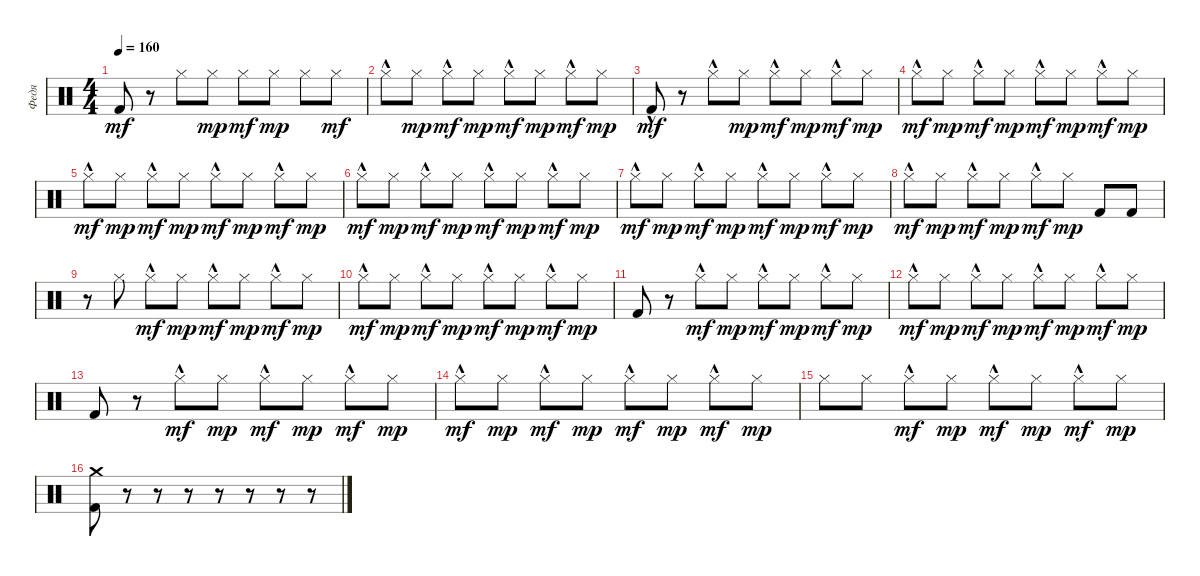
\track ("Федя" "Федя") {instrument percussion}
\staff {score}
\articulation defaults
\ts (4 4)
\tempo 160
\clef neutral
\ks c "Kick (hit) 2".8{dy mf}
r.8 "Hi-Hat (closed)".8 "Hi-Hat (closed)".8{dy mp} "Hi-Hat (closed)".8{dy mf} "Hi-Hat (closed)".8{dy mp} "Hi-Hat (closed)".8 "Hi-Hat (closed)".8{dy mf} |
"Hi-Hat (closed)"{hac}.8 "Hi-Hat (closed)".8{dy mp} "Hi-Hat (closed)"{hac}.8{dy mf} "Hi-Hat (closed)".8{dy mp} "Hi-Hat (closed)"{hac}.8{dy mf} "Hi-Hat (closed)".8{dy mp} "Hi-Hat (closed)"{hac}.8{dy mf} "Hi-Hat (closed)".8{dy mp} |
"Kick (hit) 2"{hac}.8{dy mf} r.8 "Hi-Hat (closed)"{hac}.8 "Hi-Hat (closed)".8{dy mp} "Hi-Hat (closed)"{hac}.8{dy mf} "Hi-Hat (closed)".8{dy mp} "Hi-Hat (closed)"{hac}.8{dy mf} "Hi-Hat (closed)".8{dy mp} |
"Hi-Hat (closed)"{hac}.8{dy mf} "Hi-Hat (closed)".8{dy mp} "Hi-Hat (closed)"{hac}.8{dy mf} "Hi-Hat (closed)".8{dy mp} "Hi-Hat (closed)"{hac}.8{dy mf} "Hi-Hat (closed)".8{dy mp} "Hi-Hat (closed)"{hac}.8{dy mf} "Hi-Hat (closed)".8{dy mp} |
"Hi-Hat (closed)"{hac}.8{dy mf} "Hi-Hat (closed)".8{dy mp} "Hi-Hat (closed)"{hac}.8{dy mf} "Hi-Hat (closed)".8{dy mp} "Hi-Hat (closed)"{hac}.8{dy mf} "Hi-Hat (closed)".8{dy mp} "Hi-Hat (closed)"{hac}.8{dy mf} "Hi-Hat (closed)".8{dy mp} |
"Hi-Hat (closed)"{hac}.8{dy mf} "Hi-Hat (closed)".8{dy mp} "Hi-Hat (closed)"{hac}.8{dy mf} "Hi-Hat (closed)".8{dy mp} "Hi-Hat (closed)"{hac}.8{dy mf} "Hi-Hat (closed)".8{dy mp} "Hi-Hat (closed)"{hac}.8{dy mf} "Hi-Hat (closed)".8{dy mp} |
"Hi-Hat (closed)"{hac}.8{dy mf} "Hi-Hat (closed)".8{dy mp} "Hi-Hat (closed)"{hac}.8{dy mf} "Hi-Hat (closed)".8{dy mp} "Hi-Hat (closed)"{hac}.8{dy mf} "Hi-Hat (closed)".8{dy mp} "Hi-Hat (closed)"{hac}.8{dy mf} "Hi-Hat (closed)".8{dy mp} |
"Hi-Hat (closed)"{hac}.8{dy mf} "Hi-Hat (closed)".8{dy mp} "Hi-Hat (closed)"{hac}.8{dy mf} "Hi-Hat (closed)".8{dy mp} "Hi-Hat (closed)"{hac}.8{dy mf} "Hi-Hat (closed)".8{dy mp} "Kick (hit) 2".8 "Kick (hit) 2".8 |
r.8 "Hi-Hat (closed)".8 "Hi-Hat (closed)"{hac}.8{dy mf} "Hi-Hat (closed)".8{dy mp} "Hi-Hat (closed)"{hac}.8{dy mf} "Hi-Hat (closed)".8{dy mp} "Hi-Hat (closed)"{hac}.8{dy mf} "Hi-Hat (closed)".8{dy mp} |
"Hi-Hat (closed)"{hac}.8{dy mf} "Hi-Hat (closed)".8{dy mp} "Hi-Hat (closed)"{hac}.8{dy mf} "Hi-Hat (closed)".8{dy mp} "Hi-Hat (closed)"{hac}.8{dy mf} "Hi-Hat (closed)".8{dy mp} "Hi-Hat (closed)"{hac}.8{dy mf} "Hi-Hat (closed)".8{dy mp} |
"Kick (hit) 2".8 r.8 "Hi-Hat (closed)"{hac}.8{dy mf} "Hi-Hat (closed)".8{dy mp} "Hi-Hat (closed)"{hac}.8{dy mf} "Hi-Hat (closed)".8{dy mp} "Hi-Hat (closed)"{hac}.8{dy mf} "Hi-Hat (closed)".8{dy mp} |
"Hi-Hat (closed)"{hac}.8{dy mf} "Hi-Hat (closed)".8{dy mp} "Hi-Hat (closed)"{hac}.8{dy mf} "Hi-Hat (closed)".8{dy mp} "Hi-Hat (closed)"{hac}.8{dy mf} "Hi-Hat (closed)".8{dy mp} "Hi-Hat (closed)"{hac}.8{dy mf} "Hi-Hat (closed)".8{dy mp} |
"Kick (hit) 2".8 r.8 "Hi-Hat (closed)"{hac}.8{dy mf} "Hi-Hat (closed)".8{dy mp} "Hi-Hat (closed)"{hac}.8{dy mf} "Hi-Hat (closed)".8{dy mp} "Hi-Hat (closed)"{hac}.8{dy mf} "Hi-Hat (closed)".8{dy mp} |
"Hi-Hat (closed)"{hac}.8{dy mf} "Hi-Hat (closed)".8{dy mp} "Hi-Hat (closed)"{hac}.8{dy mf} "Hi-Hat (closed)".8{dy mp} "Hi-Hat (closed)"{hac}.8{dy mf} "Hi-Hat (closed)".8{dy mp} "Hi-Hat (closed)"{hac}.8{dy mf} "Hi-Hat (closed)".8{dy mp} |
"Hi-Hat (closed)".8 "Hi-Hat (closed)".8 "Hi-Hat (closed)"{hac}.8{dy mf} "Hi-Hat (closed)".8{dy mp} "Hi-Hat (closed)"{hac}.8{dy mf} "Hi-Hat (closed)".8{dy mp} "Hi-Hat (closed)"{hac}.8{dy mf} "Hi-Hat (closed)".8{dy mp} |
("Crash medium (hit)" "Kick (hit) 2").8 r.8 r.8 r.8 r.8 r.8 r.8 r.8
